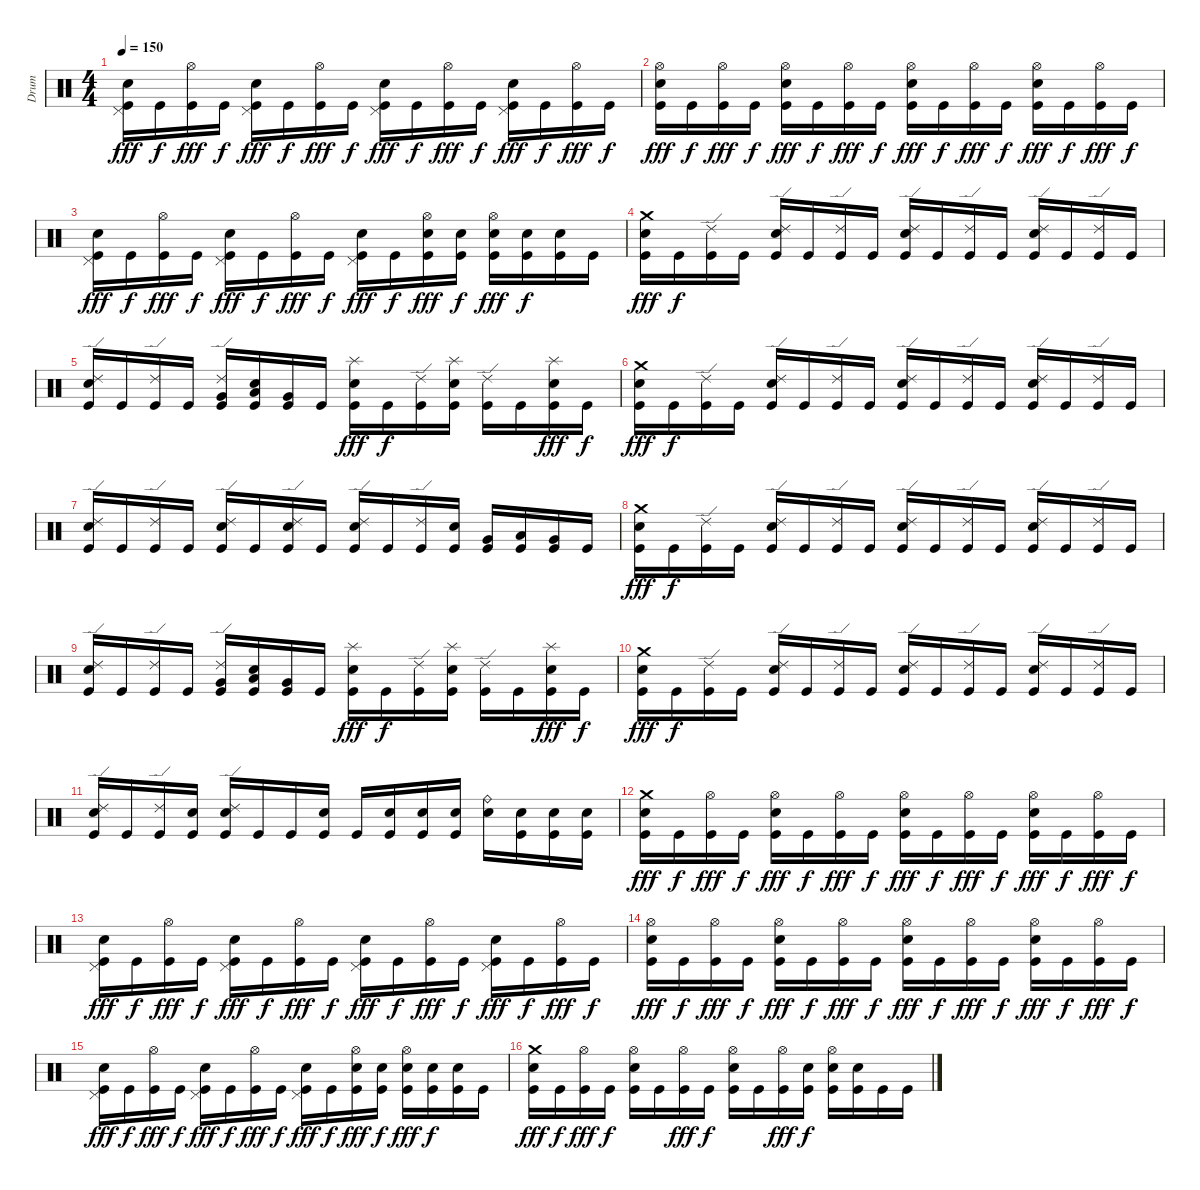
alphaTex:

\track ("Drum" "Drum") {instrument percussion}
\staff {score}
\articulation defaults
\ts (4 4)
\tempo 150
\clef neutral
\ks c
("Pedal Hi-Hat (hit)" "Snare (hit) 2" "Kick (hit)").16{dy fff} "Kick (hit)".16{dy f} ("Hi-Hat (open)" "Kick (hit)").16{dy fff} "Kick (hit)".16{dy f} ("Pedal Hi-Hat (hit)" "Snare (hit) 2" "Kick (hit)").16{dy fff} "Kick (hit)".16{dy f} ("Hi-Hat (open)" "Kick (hit)").16{dy fff} "Kick (hit)".16{dy f} ("Pedal Hi-Hat (hit)" "Snare (hit) 2" "Kick (hit)").16{dy fff} "Kick (hit)".16{dy f} ("Hi-Hat (open)" "Kick (hit)").16{dy fff} "Kick (hit)".16{dy f} ("Pedal Hi-Hat (hit)" "Snare (hit) 2" "Kick (hit)").16{dy fff} "Kick (hit)".16{dy f} ("Hi-Hat (open)" "Kick (hit)").16{dy fff} "Kick (hit)".16{dy f} |
("Hi-Hat (open)" "Snare (hit) 2" "Kick (hit)").16{dy fff} "Kick (hit)".16{dy f} ("Hi-Hat (open)" "Kick (hit)").16{dy fff} "Kick (hit)".16{dy f} ("Hi-Hat (open)" "Snare (hit) 2" "Kick (hit)").16{dy fff} "Kick (hit)".16{dy f} ("Hi-Hat (open)" "Kick (hit)").16{dy fff} "Kick (hit)".16{dy f} ("Hi-Hat (open)" "Snare (hit) 2" "Kick (hit)").16{dy fff} "Kick (hit)".16{dy f} ("Hi-Hat (open)" "Kick (hit)").16{dy fff} "Kick (hit)".16{dy f} ("Hi-Hat (open)" "Snare (hit) 2" "Kick (hit)").16{dy fff} "Kick (hit)".16{dy f} ("Hi-Hat (open)" "Kick (hit)").16{dy fff} "Kick (hit)".16{dy f} |
("Pedal Hi-Hat (hit)" "Snare (hit) 2" "Kick (hit)").16{dy fff} "Kick (hit)".16{dy f} ("Hi-Hat (open)" "Kick (hit)").16{dy fff} "Kick (hit)".16{dy f} ("Pedal Hi-Hat (hit)" "Snare (hit) 2" "Kick (hit)").16{dy fff} "Kick (hit)".16{dy f} ("Hi-Hat (open)" "Kick (hit)").16{dy fff} "Kick (hit)".16{dy f} ("Pedal Hi-Hat (hit)" "Snare (hit) 2" "Kick (hit)").16{dy fff} "Kick (hit)".16{dy f} ("Hi-Hat (open)" "Snare (hit) 2" "Kick (hit)").16{dy fff} ("Snare (hit) 2" "Kick (hit)").16{dy f} ("Hi-Hat (open)" "Snare (hit) 2" "Kick (hit)").16{dy fff} ("Snare (hit) 2" "Kick (hit)").16{dy f} ("Snare (hit) 2" "Kick (hit)").16 "Kick (hit)".16 |
("Crash medium (hit)" "Snare (hit) 2" "Kick (hit)").16{dy fff} "Kick (hit)".16{dy f} ("Ride (edge) 2" "Kick (hit)").16 "Kick (hit)".16 ("Ride (edge) 2" "Snare (hit) 2" "Kick (hit)").16 "Kick (hit)".16 ("Ride (edge) 2" "Kick (hit)").16 "Kick (hit)".16 ("Ride (edge) 2" "Snare (hit) 2" "Kick (hit)").16 "Kick (hit)".16 ("Ride (edge) 2" "Kick (hit)").16 "Kick (hit)".16 ("Ride (edge) 2" "Snare (hit) 2" "Kick (hit)").16 "Kick (hit)".16 ("Ride (edge) 2" "Kick (hit)").16 "Kick (hit)".16 |
("Ride (edge) 2" "Snare (hit) 2" "Kick (hit)").16 "Kick (hit)".16 ("Ride (edge) 2" "Kick (hit)").16 "Kick (hit)".16 ("Ride (edge) 2" "Very Low Tom (hit)" "Kick (hit)").16 ("Snare (hit) 2" "Low Floor Tom (hit)" "Kick (hit)").16 ("Very Low Tom (hit)" "Kick (hit)").16 "Kick (hit)".16 ("Splash (hit)" "Snare (hit) 2" "Kick (hit)").16{dy fff} "Kick (hit)".16{dy f} ("Ride (edge) 2" "Kick (hit)").16 ("Splash (hit)" "Snare (hit) 2" "Kick (hit)").16 ("Ride (edge) 2" "Kick (hit)").16 "Kick (hit)".16 ("Splash (hit)" "Snare (hit) 2" "Kick (hit)").16{dy fff} "Kick (hit)".16{dy f} |
("Crash medium (hit)" "Snare (hit) 2" "Kick (hit)").16{dy fff} "Kick (hit)".16{dy f} ("Ride (edge) 2" "Kick (hit)").16 "Kick (hit)".16 ("Ride (edge) 2" "Snare (hit) 2" "Kick (hit)").16 "Kick (hit)".16 ("Ride (edge) 2" "Kick (hit)").16 "Kick (hit)".16 ("Ride (edge) 2" "Snare (hit) 2" "Kick (hit)").16 "Kick (hit)".16 ("Ride (edge) 2" "Kick (hit)").16 "Kick (hit)".16 ("Ride (edge) 2" "Snare (hit) 2" "Kick (hit)").16 "Kick (hit)".16 ("Ride (edge) 2" "Kick (hit)").16 "Kick (hit)".16 |
("Ride (edge) 2" "Snare (hit) 2" "Kick (hit)").16 "Kick (hit)".16 ("Ride (edge) 2" "Kick (hit)").16 "Kick (hit)".16 ("Ride (edge) 2" "Snare (hit) 2" "Kick (hit)").16 "Kick (hit)".16 ("Ride (edge) 2" "Snare (hit) 2" "Kick (hit)").16 "Kick (hit)".16 ("Ride (edge) 2" "Snare (hit) 2" "Kick (hit)").16 "Kick (hit)".16 ("Ride (edge) 2" "Kick (hit)").16 ("Snare (hit) 2" "Kick (hit)").16 ("Very Low Tom (hit)" "Kick (hit)").16 ("Low Floor Tom (hit)" "Kick (hit)").16 ("Very Low Tom (hit)" "Kick (hit)").16 "Kick (hit)".16 |
("Crash medium (hit)" "Snare (hit) 2" "Kick (hit)").16{dy fff} "Kick (hit)".16{dy f} ("Ride (edge) 2" "Kick (hit)").16 "Kick (hit)".16 ("Ride (edge) 2" "Snare (hit) 2" "Kick (hit)").16 "Kick (hit)".16 ("Ride (edge) 2" "Kick (hit)").16 "Kick (hit)".16 ("Ride (edge) 2" "Snare (hit) 2" "Kick (hit)").16 "Kick (hit)".16 ("Ride (edge) 2" "Kick (hit)").16 "Kick (hit)".16 ("Ride (edge) 2" "Snare (hit) 2" "Kick (hit)").16 "Kick (hit)".16 ("Ride (edge) 2" "Kick (hit)").16 "Kick (hit)".16 |
("Ride (edge) 2" "Snare (hit) 2" "Kick (hit)").16 "Kick (hit)".16 ("Ride (edge) 2" "Kick (hit)").16 "Kick (hit)".16 ("Ride (edge) 2" "Very Low Tom (hit)" "Kick (hit)").16 ("Snare (hit) 2" "Low Floor Tom (hit)" "Kick (hit)").16 ("Very Low Tom (hit)" "Kick (hit)").16 "Kick (hit)".16 ("Splash (hit)" "Snare (hit) 2" "Kick (hit)").16{dy fff} "Kick (hit)".16{dy f} ("Ride (edge) 2" "Kick (hit)").16 ("Splash (hit)" "Snare (hit) 2" "Kick (hit)").16 ("Ride (edge) 2" "Kick (hit)").16 "Kick (hit)".16 ("Splash (hit)" "Snare (hit) 2" "Kick (hit)").16{dy fff} "Kick (hit)".16{dy f} |
("Crash medium (hit)" "Snare (hit) 2" "Kick (hit)").16{dy fff} "Kick (hit)".16{dy f} ("Ride (edge) 2" "Kick (hit)").16 "Kick (hit)".16 ("Ride (edge) 2" "Snare (hit) 2" "Kick (hit)").16 "Kick (hit)".16 ("Ride (edge) 2" "Kick (hit)").16 "Kick (hit)".16 ("Ride (edge) 2" "Snare (hit) 2" "Kick (hit)").16 "Kick (hit)".16 ("Ride (edge) 2" "Kick (hit)").16 "Kick (hit)".16 ("Ride (edge) 2" "Snare (hit) 2" "Kick (hit)").16 "Kick (hit)".16 ("Ride (edge) 2" "Kick (hit)").16 "Kick (hit)".16 |
("Ride (edge) 2" "Snare (hit) 2" "Kick (hit)").16 "Kick (hit)".16 ("Ride (edge) 2" "Kick (hit)").16 ("Snare (hit) 2" "Kick (hit)").16 ("Ride (edge) 2" "Snare (hit) 2" "Kick (hit)").16 "Kick (hit)".16 "Kick (hit)".16 ("Snare (hit) 2" "Kick (hit)").16 "Kick (hit)".16 ("Snare (hit) 2" "Kick (hit)").16 ("Snare (hit) 2" "Kick (hit)").16 ("Snare (hit) 2" "Kick (hit)").16 ("Snare (hit) 2" "Ride (bell)").16 ("Snare (hit) 2" "Kick (hit)").16 ("Snare (hit) 2" "Kick (hit)").16 ("Snare (hit) 2" "Kick (hit)").16 |
("Crash medium (hit)" "Snare (hit) 2" "Kick (hit)").16{dy fff} "Kick (hit)".16{dy f} ("Hi-Hat (open)" "Kick (hit)").16{dy fff} "Kick (hit)".16{dy f} ("Hi-Hat (open)" "Snare (hit) 2" "Kick (hit)").16{dy fff} "Kick (hit)".16{dy f} ("Hi-Hat (open)" "Kick (hit)").16{dy fff} "Kick (hit)".16{dy f} ("Hi-Hat (open)" "Snare (hit) 2" "Kick (hit)").16{dy fff} "Kick (hit)".16{dy f} ("Hi-Hat (open)" "Kick (hit)").16{dy fff} "Kick (hit)".16{dy f} ("Hi-Hat (open)" "Snare (hit) 2" "Kick (hit)").16{dy fff} "Kick (hit)".16{dy f} ("Hi-Hat (open)" "Kick (hit)").16{dy fff} "Kick (hit)".16{dy f} |
("Pedal Hi-Hat (hit)" "Snare (hit) 2" "Kick (hit)").16{dy fff} "Kick (hit)".16{dy f} ("Hi-Hat (open)" "Kick (hit)").16{dy fff} "Kick (hit)".16{dy f} ("Pedal Hi-Hat (hit)" "Snare (hit) 2" "Kick (hit)").16{dy fff} "Kick (hit)".16{dy f} ("Hi-Hat (open)" "Kick (hit)").16{dy fff} "Kick (hit)".16{dy f} ("Pedal Hi-Hat (hit)" "Snare (hit) 2" "Kick (hit)").16{dy fff} "Kick (hit)".16{dy f} ("Hi-Hat (open)" "Kick (hit)").16{dy fff} "Kick (hit)".16{dy f} ("Pedal Hi-Hat (hit)" "Snare (hit) 2" "Kick (hit)").16{dy fff} "Kick (hit)".16{dy f} ("Hi-Hat (open)" "Kick (hit)").16{dy fff} "Kick (hit)".16{dy f} |
("Hi-Hat (open)" "Snare (hit) 2" "Kick (hit)").16{dy fff} "Kick (hit)".16{dy f} ("Hi-Hat (open)" "Kick (hit)").16{dy fff} "Kick (hit)".16{dy f} ("Hi-Hat (open)" "Snare (hit) 2" "Kick (hit)").16{dy fff} "Kick (hit)".16{dy f} ("Hi-Hat (open)" "Kick (hit)").16{dy fff} "Kick (hit)".16{dy f} ("Hi-Hat (open)" "Snare (hit) 2" "Kick (hit)").16{dy fff} "Kick (hit)".16{dy f} ("Hi-Hat (open)" "Kick (hit)").16{dy fff} "Kick (hit)".16{dy f} ("Hi-Hat (open)" "Snare (hit) 2" "Kick (hit)").16{dy fff} "Kick (hit)".16{dy f} ("Hi-Hat (open)" "Kick (hit)").16{dy fff} "Kick (hit)".16{dy f} |
("Pedal Hi-Hat (hit)" "Snare (hit) 2" "Kick (hit)").16{dy fff} "Kick (hit)".16{dy f} ("Hi-Hat (open)" "Kick (hit)").16{dy fff} "Kick (hit)".16{dy f} ("Pedal Hi-Hat (hit)" "Snare (hit) 2" "Kick (hit)").16{dy fff} "Kick (hit)".16{dy f} ("Hi-Hat (open)" "Kick (hit)").16{dy fff} "Kick (hit)".16{dy f} ("Pedal Hi-Hat (hit)" "Snare (hit) 2" "Kick (hit)").16{dy fff} "Kick (hit)".16{dy f} ("Hi-Hat (open)" "Snare (hit) 2" "Kick (hit)").16{dy fff} ("Snare (hit) 2" "Kick (hit)").16{dy f} ("Hi-Hat (open)" "Snare (hit) 2" "Kick (hit)").16{dy fff} ("Snare (hit) 2" "Kick (hit)").16{dy f} ("Snare (hit) 2" "Kick (hit)").16 "Kick (hit)".16 |
("Crash medium (hit)" "Snare (hit) 2" "Kick (hit)").16{dy fff} "Kick (hit)".16{dy f} ("Hi-Hat (open)" "Kick (hit)").16{dy fff} "Kick (hit)".16{dy f} ("Hi-Hat (open)" "Snare (hit) 2" "Kick (hit)").16 "Kick (hit)".16 ("Hi-Hat (open)" "Kick (hit)").16{dy fff} "Kick (hit)".16{dy f} ("Hi-Hat (open)" "Snare (hit) 2" "Kick (hit)").16 "Kick (hit)".16 ("Hi-Hat (open)" "Kick (hit)").16{dy fff} ("Snare (hit) 2" "Kick (hit)").16{dy f} ("Hi-Hat (open)" "Snare (hit) 2" "Kick (hit)").16 ("Snare (hit) 2" "Kick (hit)").16 "Kick (hit)".16 "Kick (hit)".16
